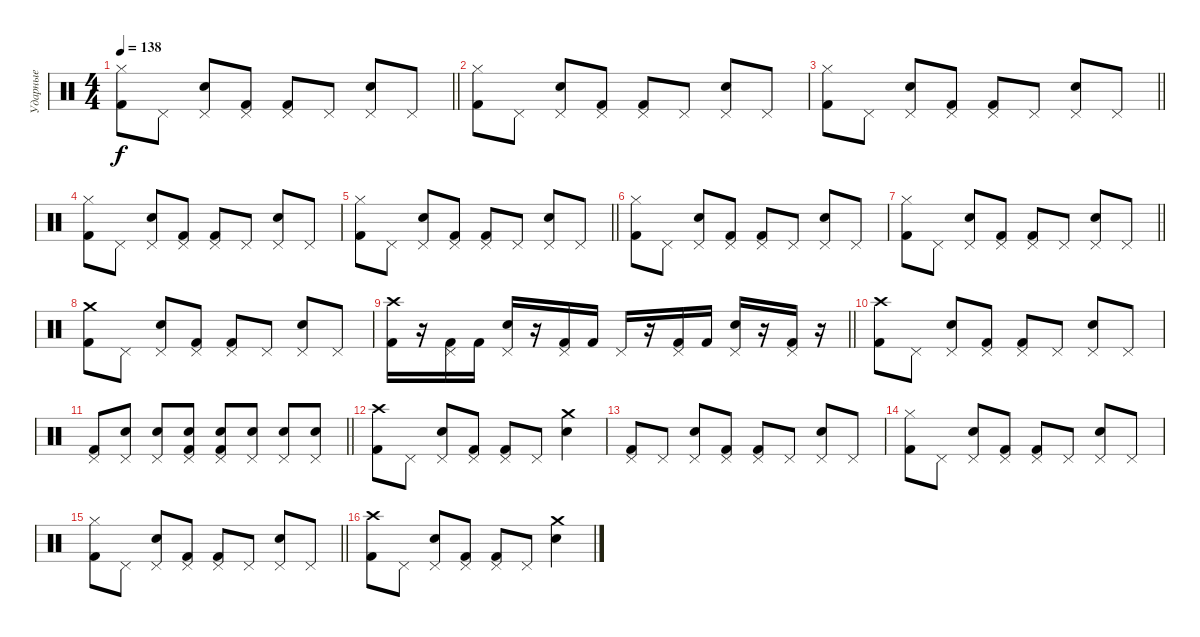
\track ("Ударные" "Ударные") {instrument percussion}
\staff {score}
\articulation defaults
\ts (4 4)
\tempo 138
\clef neutral
\barLineRight lightlight
\ks c
("Hi-Hat (closed)" "Kick (hit) 2").8{dy f} "Pedal Hi-Hat (hit)".8 ("Pedal Hi-Hat (hit)" "Electric Snare (hit)").8 ("Pedal Hi-Hat (hit)" "Kick (hit) 2").8 ("Pedal Hi-Hat (hit)" "Kick (hit) 2").8 "Pedal Hi-Hat (hit)".8 ("Pedal Hi-Hat (hit)" "Electric Snare (hit)").8 "Pedal Hi-Hat (hit)".8 |
("Hi-Hat (closed)" "Kick (hit) 2").8 "Pedal Hi-Hat (hit)".8 ("Pedal Hi-Hat (hit)" "Electric Snare (hit)").8 ("Pedal Hi-Hat (hit)" "Kick (hit) 2").8 ("Pedal Hi-Hat (hit)" "Kick (hit) 2").8 "Pedal Hi-Hat (hit)".8 ("Pedal Hi-Hat (hit)" "Electric Snare (hit)").8 "Pedal Hi-Hat (hit)".8 |
\barLineRight lightlight
("Hi-Hat (closed)" "Kick (hit) 2").8 "Pedal Hi-Hat (hit)".8 ("Pedal Hi-Hat (hit)" "Electric Snare (hit)").8 ("Pedal Hi-Hat (hit)" "Kick (hit) 2").8 ("Pedal Hi-Hat (hit)" "Kick (hit) 2").8 "Pedal Hi-Hat (hit)".8 ("Pedal Hi-Hat (hit)" "Electric Snare (hit)").8 "Pedal Hi-Hat (hit)".8 |
("Hi-Hat (closed)" "Kick (hit) 2").8 "Pedal Hi-Hat (hit)".8 ("Pedal Hi-Hat (hit)" "Electric Snare (hit)").8 ("Pedal Hi-Hat (hit)" "Kick (hit) 2").8 ("Pedal Hi-Hat (hit)" "Kick (hit) 2").8 "Pedal Hi-Hat (hit)".8 ("Pedal Hi-Hat (hit)" "Electric Snare (hit)").8 "Pedal Hi-Hat (hit)".8 |
\barLineRight lightlight
("Hi-Hat (closed)" "Kick (hit) 2").8 "Pedal Hi-Hat (hit)".8 ("Pedal Hi-Hat (hit)" "Electric Snare (hit)").8 ("Pedal Hi-Hat (hit)" "Kick (hit) 2").8 ("Pedal Hi-Hat (hit)" "Kick (hit) 2").8 "Pedal Hi-Hat (hit)".8 ("Pedal Hi-Hat (hit)" "Electric Snare (hit)").8 "Pedal Hi-Hat (hit)".8 |
("Hi-Hat (closed)" "Kick (hit) 2").8 "Pedal Hi-Hat (hit)".8 ("Pedal Hi-Hat (hit)" "Electric Snare (hit)").8 ("Pedal Hi-Hat (hit)" "Kick (hit) 2").8 ("Pedal Hi-Hat (hit)" "Kick (hit) 2").8 "Pedal Hi-Hat (hit)".8 ("Pedal Hi-Hat (hit)" "Electric Snare (hit)").8 "Pedal Hi-Hat (hit)".8 |
\barLineRight lightlight
("Hi-Hat (closed)" "Kick (hit) 2").8 "Pedal Hi-Hat (hit)".8 ("Pedal Hi-Hat (hit)" "Electric Snare (hit)").8 ("Pedal Hi-Hat (hit)" "Kick (hit) 2").8 ("Pedal Hi-Hat (hit)" "Kick (hit) 2").8 "Pedal Hi-Hat (hit)".8 ("Pedal Hi-Hat (hit)" "Electric Snare (hit)").8 "Pedal Hi-Hat (hit)".8 |
("Crash medium (hit)" "Kick (hit) 2").8 "Pedal Hi-Hat (hit)".8 ("Pedal Hi-Hat (hit)" "Electric Snare (hit)").8 ("Pedal Hi-Hat (hit)" "Kick (hit) 2").8 ("Pedal Hi-Hat (hit)" "Kick (hit) 2").8 "Pedal Hi-Hat (hit)".8 ("Pedal Hi-Hat (hit)" "Electric Snare (hit)").8 "Pedal Hi-Hat (hit)".8 |
\barLineRight lightlight
("Crash high (hit)" "Kick (hit) 2").16 r.16 ("Pedal Hi-Hat (hit)" "Kick (hit) 2").16 "Kick (hit) 2".16 ("Pedal Hi-Hat (hit)" "Electric Snare (hit)").16 r.16 ("Pedal Hi-Hat (hit)" "Kick (hit) 2").16 "Kick (hit) 2".16 "Pedal Hi-Hat (hit)".16 r.16 ("Pedal Hi-Hat (hit)" "Kick (hit) 2").16 "Kick (hit) 2".16 ("Pedal Hi-Hat (hit)" "Electric Snare (hit)").16 r.16 ("Pedal Hi-Hat (hit)" "Kick (hit) 2").16 r.16 |
("Crash high (hit)" "Kick (hit) 2").8 "Pedal Hi-Hat (hit)".8 ("Pedal Hi-Hat (hit)" "Electric Snare (hit)").8 ("Pedal Hi-Hat (hit)" "Kick (hit) 2").8 ("Pedal Hi-Hat (hit)" "Kick (hit) 2").8 "Pedal Hi-Hat (hit)".8 ("Pedal Hi-Hat (hit)" "Electric Snare (hit)").8 "Pedal Hi-Hat (hit)".8 |
\barLineRight lightlight
("Pedal Hi-Hat (hit)" "Kick (hit) 2").8 ("Pedal Hi-Hat (hit)" "Electric Snare (hit)").8 ("Pedal Hi-Hat (hit)" "Electric Snare (hit)").8 ("Pedal Hi-Hat (hit)" "Electric Snare (hit)" "Kick (hit) 2").8 ("Pedal Hi-Hat (hit)" "Electric Snare (hit)" "Kick (hit) 2").8 ("Pedal Hi-Hat (hit)" "Electric Snare (hit)").8 ("Pedal Hi-Hat (hit)" "Electric Snare (hit)").8 ("Pedal Hi-Hat (hit)" "Electric Snare (hit)").8 |
("Crash high (hit)" "Kick (hit) 2").8 "Pedal Hi-Hat (hit)".8 ("Pedal Hi-Hat (hit)" "Electric Snare (hit)").8 ("Pedal Hi-Hat (hit)" "Kick (hit) 2").8 ("Pedal Hi-Hat (hit)" "Kick (hit) 2").8 "Pedal Hi-Hat (hit)".8 ("Crash medium (hit)" "Electric Snare (hit)").4 |
("Pedal Hi-Hat (hit)" "Kick (hit) 2").8 "Pedal Hi-Hat (hit)".8 ("Pedal Hi-Hat (hit)" "Electric Snare (hit)").8 ("Pedal Hi-Hat (hit)" "Kick (hit) 2").8 ("Pedal Hi-Hat (hit)" "Kick (hit) 2").8 "Pedal Hi-Hat (hit)".8 ("Pedal Hi-Hat (hit)" "Electric Snare (hit)").8 "Pedal Hi-Hat (hit)".8 |
("Hi-Hat (closed)" "Kick (hit) 2").8 "Pedal Hi-Hat (hit)".8 ("Pedal Hi-Hat (hit)" "Electric Snare (hit)").8 ("Pedal Hi-Hat (hit)" "Kick (hit) 2").8 ("Pedal Hi-Hat (hit)" "Kick (hit) 2").8 "Pedal Hi-Hat (hit)".8 ("Pedal Hi-Hat (hit)" "Electric Snare (hit)").8 "Pedal Hi-Hat (hit)".8 |
\barLineRight lightlight
("Hi-Hat (closed)" "Kick (hit) 2").8 "Pedal Hi-Hat (hit)".8 ("Pedal Hi-Hat (hit)" "Electric Snare (hit)").8 ("Pedal Hi-Hat (hit)" "Kick (hit) 2").8 ("Pedal Hi-Hat (hit)" "Kick (hit) 2").8 "Pedal Hi-Hat (hit)".8 ("Pedal Hi-Hat (hit)" "Electric Snare (hit)").8 "Pedal Hi-Hat (hit)".8 |
("Crash high (hit)" "Kick (hit) 2").8 "Pedal Hi-Hat (hit)".8 ("Pedal Hi-Hat (hit)" "Electric Snare (hit)").8 ("Pedal Hi-Hat (hit)" "Kick (hit) 2").8 ("Pedal Hi-Hat (hit)" "Kick (hit) 2").8 "Pedal Hi-Hat (hit)".8 ("Crash medium (hit)" "Electric Snare (hit)").4
